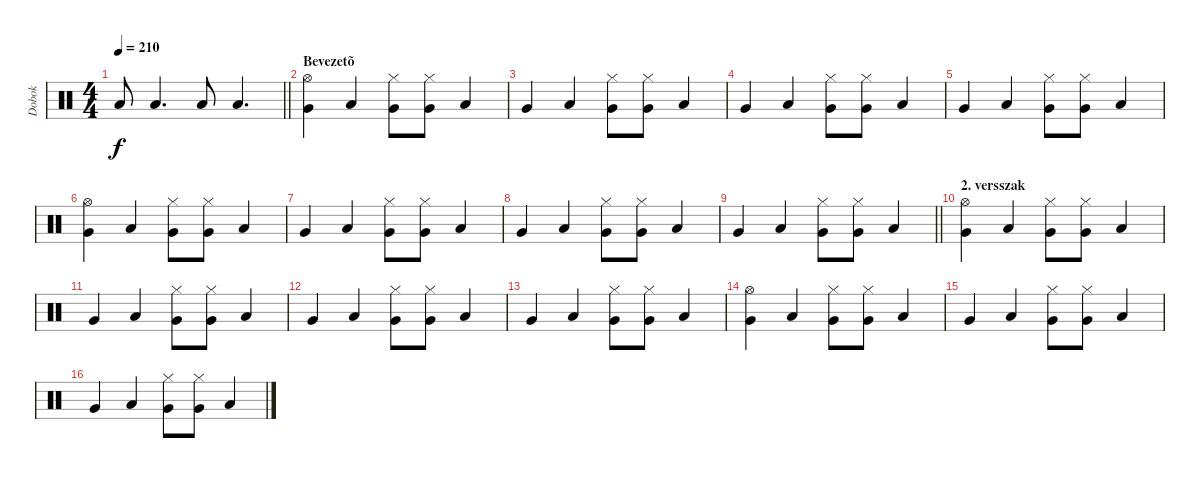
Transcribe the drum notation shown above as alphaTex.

\track ("Dobok" "Dobok") {instrument percussion}
\staff {score}
\articulation defaults
\ts (4 4)
\tempo 210
\clef neutral
\barLineRight lightlight
\ks c "Low Tom (hit)".8{dy f} "Low Tom (hit)".4{d} "Low Tom (hit)".8 "Low Tom (hit)".4{d}
|
\section ("" "Bevezetõ")
("Hi-Hat (open)" "Very Low Tom (hit)").4 "Low Tom (hit)".4 ("Hi-Hat (closed)" "Very Low Tom (hit)").8 ("Hi-Hat (closed)" "Very Low Tom (hit)").8 "Low Tom (hit)".4 |
"Very Low Tom (hit)".4 "Low Tom (hit)".4 ("Hi-Hat (closed)" "Very Low Tom (hit)").8 ("Hi-Hat (closed)" "Very Low Tom (hit)").8 "Low Tom (hit)".4 |
"Very Low Tom (hit)".4 "Low Tom (hit)".4 ("Hi-Hat (closed)" "Very Low Tom (hit)").8 ("Hi-Hat (closed)" "Very Low Tom (hit)").8 "Low Tom (hit)".4 |
"Very Low Tom (hit)".4 "Low Tom (hit)".4 ("Hi-Hat (closed)" "Very Low Tom (hit)").8 ("Hi-Hat (closed)" "Very Low Tom (hit)").8 "Low Tom (hit)".4 |
("Hi-Hat (open)" "Very Low Tom (hit)").4 "Low Tom (hit)".4 ("Hi-Hat (closed)" "Very Low Tom (hit)").8 ("Hi-Hat (closed)" "Very Low Tom (hit)").8 "Low Tom (hit)".4 |
"Very Low Tom (hit)".4 "Low Tom (hit)".4 ("Hi-Hat (closed)" "Very Low Tom (hit)").8 ("Hi-Hat (closed)" "Very Low Tom (hit)").8 "Low Tom (hit)".4 |
"Very Low Tom (hit)".4 "Low Tom (hit)".4 ("Hi-Hat (closed)" "Very Low Tom (hit)").8 ("Hi-Hat (closed)" "Very Low Tom (hit)").8 "Low Tom (hit)".4 |
\barLineRight lightlight "Very Low Tom (hit)".4 "Low Tom (hit)".4
("Hi-Hat (closed)" "Very Low Tom (hit)").8 ("Hi-Hat (closed)" "Very Low Tom (hit)").8 "Low Tom (hit)".4 |
\section ("" "2. versszak")
("Hi-Hat (open)" "Very Low Tom (hit)").4 "Low Tom (hit)".4 ("Hi-Hat (closed)" "Very Low Tom (hit)").8 ("Hi-Hat (closed)" "Very Low Tom (hit)").8 "Low Tom (hit)".4 |
"Very Low Tom (hit)".4 "Low Tom (hit)".4 ("Hi-Hat (closed)" "Very Low Tom (hit)").8 ("Hi-Hat (closed)" "Very Low Tom (hit)").8 "Low Tom (hit)".4 |
"Very Low Tom (hit)".4 "Low Tom (hit)".4 ("Hi-Hat (closed)" "Very Low Tom (hit)").8 ("Hi-Hat (closed)" "Very Low Tom (hit)").8 "Low Tom (hit)".4 |
"Very Low Tom (hit)".4 "Low Tom (hit)".4 ("Hi-Hat (closed)" "Very Low Tom (hit)").8 ("Hi-Hat (closed)" "Very Low Tom (hit)").8 "Low Tom (hit)".4 |
("Hi-Hat (open)" "Very Low Tom (hit)").4 "Low Tom (hit)".4 ("Hi-Hat (closed)" "Very Low Tom (hit)").8 ("Hi-Hat (closed)" "Very Low Tom (hit)").8 "Low Tom (hit)".4 |
"Very Low Tom (hit)".4 "Low Tom (hit)".4 ("Hi-Hat (closed)" "Very Low Tom (hit)").8 ("Hi-Hat (closed)" "Very Low Tom (hit)").8 "Low Tom (hit)".4 |
"Very Low Tom (hit)".4 "Low Tom (hit)".4 ("Hi-Hat (closed)" "Very Low Tom (hit)").8 ("Hi-Hat (closed)" "Very Low Tom (hit)").8 "Low Tom (hit)".4
